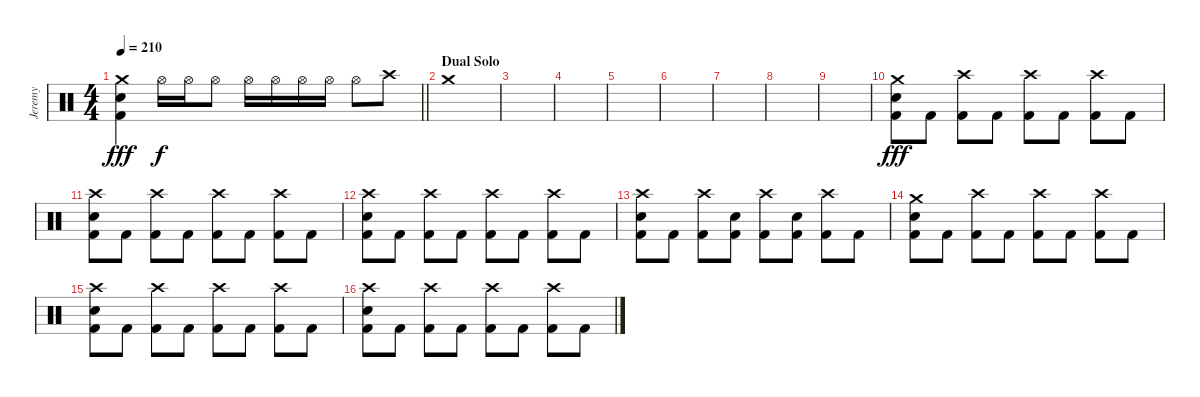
\track ("Jeremy" "Jeremy") {instrument percussion}
\staff {score}
\articulation defaults
\ts (4 4)
\tempo 210
\clef neutral
\barLineRight lightlight
\ks c
("Crash medium (hit)" "Electric Snare (hit)" "Kick (hit) 2").4{dy fff} "Hi-Hat (open)".16{dy f} "Hi-Hat (open)".16 "Hi-Hat (open)".8 "Hi-Hat (open)".16 "Hi-Hat (open)".16 "Hi-Hat (open)".16 "Hi-Hat (open)".16 "Hi-Hat (open)".8 "Crash high (hit)".8 |
\section ("" "Dual Solo")
"Crash medium (hit)".1 |
|
|
|
|
|
|
|
("Crash medium (hit)" "Electric Snare (hit)" "Kick (hit) 2").8{dy fff} "Kick (hit) 2".8 ("Crash high (hit)" "Kick (hit) 2").8 "Kick (hit) 2".8 ("Crash high (hit)" "Kick (hit) 2").8 "Kick (hit) 2".8 ("Crash high (hit)" "Kick (hit) 2").8 "Kick (hit) 2".8 |
("Crash high (hit)" "Electric Snare (hit)" "Kick (hit) 2").8 "Kick (hit) 2".8 ("Crash high (hit)" "Kick (hit) 2").8 "Kick (hit) 2".8 ("Crash high (hit)" "Kick (hit) 2").8 "Kick (hit) 2".8 ("Crash high (hit)" "Kick (hit) 2").8 "Kick (hit) 2".8 |
("Crash high (hit)" "Electric Snare (hit)" "Kick (hit) 2").8 "Kick (hit) 2".8 ("Crash high (hit)" "Kick (hit) 2").8 "Kick (hit) 2".8 ("Crash high (hit)" "Kick (hit) 2").8 "Kick (hit) 2".8 ("Crash high (hit)" "Kick (hit) 2").8 "Kick (hit) 2".8 |
("Crash high (hit)" "Electric Snare (hit)" "Kick (hit) 2").8 "Kick (hit) 2".8 ("Crash high (hit)" "Kick (hit) 2").8 ("Electric Snare (hit)" "Kick (hit) 2").8 ("Crash high (hit)" "Kick (hit) 2").8 ("Electric Snare (hit)" "Kick (hit) 2").8 ("Crash high (hit)" "Kick (hit) 2").8 "Kick (hit) 2".8 |
("Crash medium (hit)" "Electric Snare (hit)" "Kick (hit) 2").8 "Kick (hit) 2".8 ("Crash high (hit)" "Kick (hit) 2").8 "Kick (hit) 2".8 ("Crash high (hit)" "Kick (hit) 2").8 "Kick (hit) 2".8 ("Crash high (hit)" "Kick (hit) 2").8 "Kick (hit) 2".8 |
("Crash high (hit)" "Electric Snare (hit)" "Kick (hit) 2").8 "Kick (hit) 2".8 ("Crash high (hit)" "Kick (hit) 2").8 "Kick (hit) 2".8 ("Crash high (hit)" "Kick (hit) 2").8 "Kick (hit) 2".8 ("Crash high (hit)" "Kick (hit) 2").8 "Kick (hit) 2".8 |
("Crash high (hit)" "Electric Snare (hit)" "Kick (hit) 2").8 "Kick (hit) 2".8 ("Crash high (hit)" "Kick (hit) 2").8 "Kick (hit) 2".8 ("Crash high (hit)" "Kick (hit) 2").8 "Kick (hit) 2".8 ("Crash high (hit)" "Kick (hit) 2").8 "Kick (hit) 2".8
